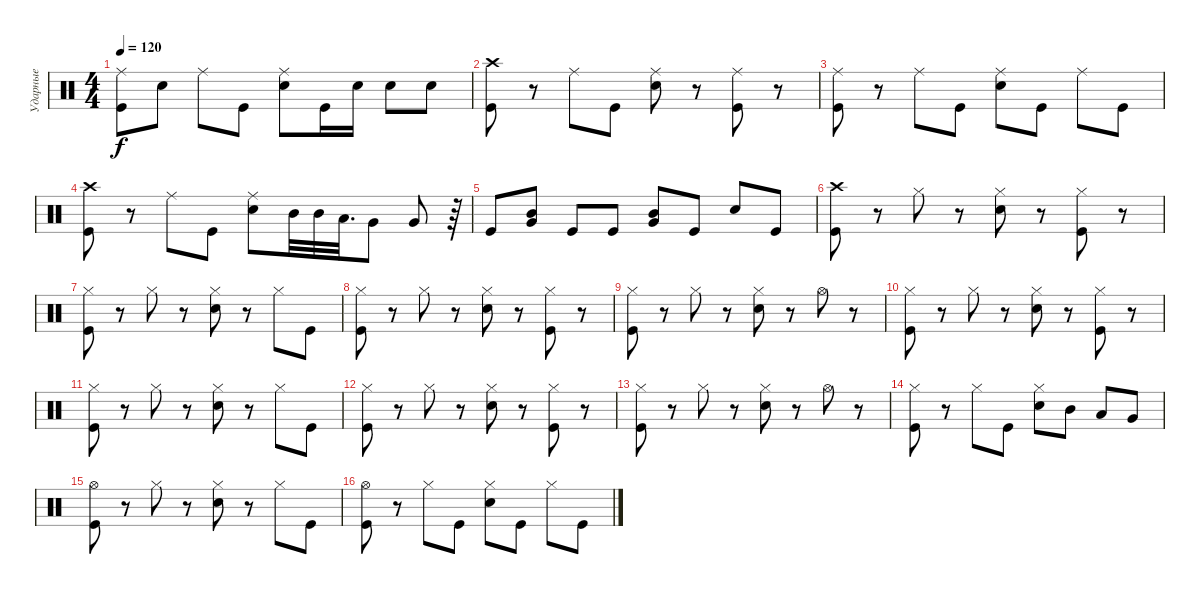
\track ("Ударные" "Ударные") {instrument percussion}
\staff {score}
\articulation defaults
\ts (4 4)
\tempo 120
\clef neutral
\ks c
("Ride (middle)" "Kick (hit)").8{dy f} "Snare (hit) 2".8 "Ride (middle)".8 "Kick (hit)".8 ("Ride (middle)" "Snare (hit) 2").8 "Kick (hit)".16 "Snare (hit) 2".16 "Snare (hit) 2".8 "Snare (hit) 2".8 |
("Crash high (hit)" "Kick (hit)").8 r.8 "Ride (middle)".8 "Kick (hit)".8 ("Ride (middle)" "Snare (hit) 2").8 r.8 ("Ride (middle)" "Kick (hit)").8 r.8 |
("Ride (middle)" "Kick (hit)").8 r.8 "Ride (middle)".8 "Kick (hit)".8 ("Ride (middle)" "Snare (hit) 2").8 "Kick (hit)".8 "Ride (middle)".8 "Kick (hit)".8 |
("Crash high (hit)" "Kick (hit)").8 r.8 "Ride (middle)".8 "Kick (hit)".8 ("Ride (middle)" "Snare (hit) 2").8 "Mid Tom (hit)".32 "Mid Tom (hit)".32 "Low Tom (hit)".32{d} "Very Low Tom (hit)".8 "Very Low Tom (hit)".8 r.64 |
"Kick (hit)".8 ("Mid Tom (hit)" "Very Low Tom (hit)").8 "Kick (hit)".8 "Kick (hit)".8 ("Mid Tom (hit)" "Very Low Tom (hit)").8 "Kick (hit)".8 "Snare (hit) 2".8 "Kick (hit)".8 |
("Crash high (hit)" "Kick (hit)").8 r.8 "Hi-Hat (closed)".8 r.8 ("Hi-Hat (closed)" "Snare (hit) 2").8 r.8 ("Hi-Hat (closed)" "Kick (hit)").8 r.8 |
("Hi-Hat (closed)" "Kick (hit)").8 r.8 "Hi-Hat (closed)".8 r.8 ("Hi-Hat (closed)" "Snare (hit) 2").8 r.8 "Hi-Hat (closed)".8 "Kick (hit)".8 |
("Hi-Hat (closed)" "Kick (hit)").8 r.8 "Hi-Hat (closed)".8 r.8 ("Hi-Hat (closed)" "Snare (hit) 2").8 r.8 ("Hi-Hat (closed)" "Kick (hit)").8 r.8 |
("Hi-Hat (closed)" "Kick (hit)").8 r.8 "Hi-Hat (closed)".8 r.8 ("Hi-Hat (closed)" "Snare (hit) 2").8 r.8 "Hi-Hat (open)".8 r.8 |
("Hi-Hat (closed)" "Kick (hit)").8 r.8 "Hi-Hat (closed)".8 r.8 ("Hi-Hat (closed)" "Snare (hit) 2").8 r.8 ("Hi-Hat (closed)" "Kick (hit)").8 r.8 |
("Hi-Hat (closed)" "Kick (hit)").8 r.8 "Hi-Hat (closed)".8 r.8 ("Hi-Hat (closed)" "Snare (hit) 2").8 r.8 "Hi-Hat (closed)".8 "Kick (hit)".8 |
("Hi-Hat (closed)" "Kick (hit)").8 r.8 "Hi-Hat (closed)".8 r.8 ("Hi-Hat (closed)" "Snare (hit) 2").8 r.8 ("Hi-Hat (closed)" "Kick (hit)").8 r.8 |
("Hi-Hat (closed)" "Kick (hit)").8 r.8 "Hi-Hat (closed)".8 r.8 ("Hi-Hat (closed)" "Snare (hit) 2").8 r.8 "Hi-Hat (open)".8 r.8 |
("Hi-Hat (closed)" "Kick (hit)").8 r.8 "Hi-Hat (closed)".8 "Kick (hit)".8 ("Hi-Hat (closed)" "Snare (hit) 2").8 "Mid Tom (hit)".8 "Low Tom (hit)".8 "Very Low Tom (hit)".8 |
("Hi-Hat (open)" "Kick (hit)").8 r.8 "Hi-Hat (closed)".8 r.8 ("Hi-Hat (closed)" "Snare (hit) 2").8 r.8 "Hi-Hat (closed)".8 "Kick (hit)".8 |
("Hi-Hat (open)" "Kick (hit)").8 r.8 "Hi-Hat (closed)".8 "Kick (hit)".8 ("Hi-Hat (closed)" "Snare (hit) 2").8 "Kick (hit)".8 "Hi-Hat (closed)".8 "Kick (hit)".8
